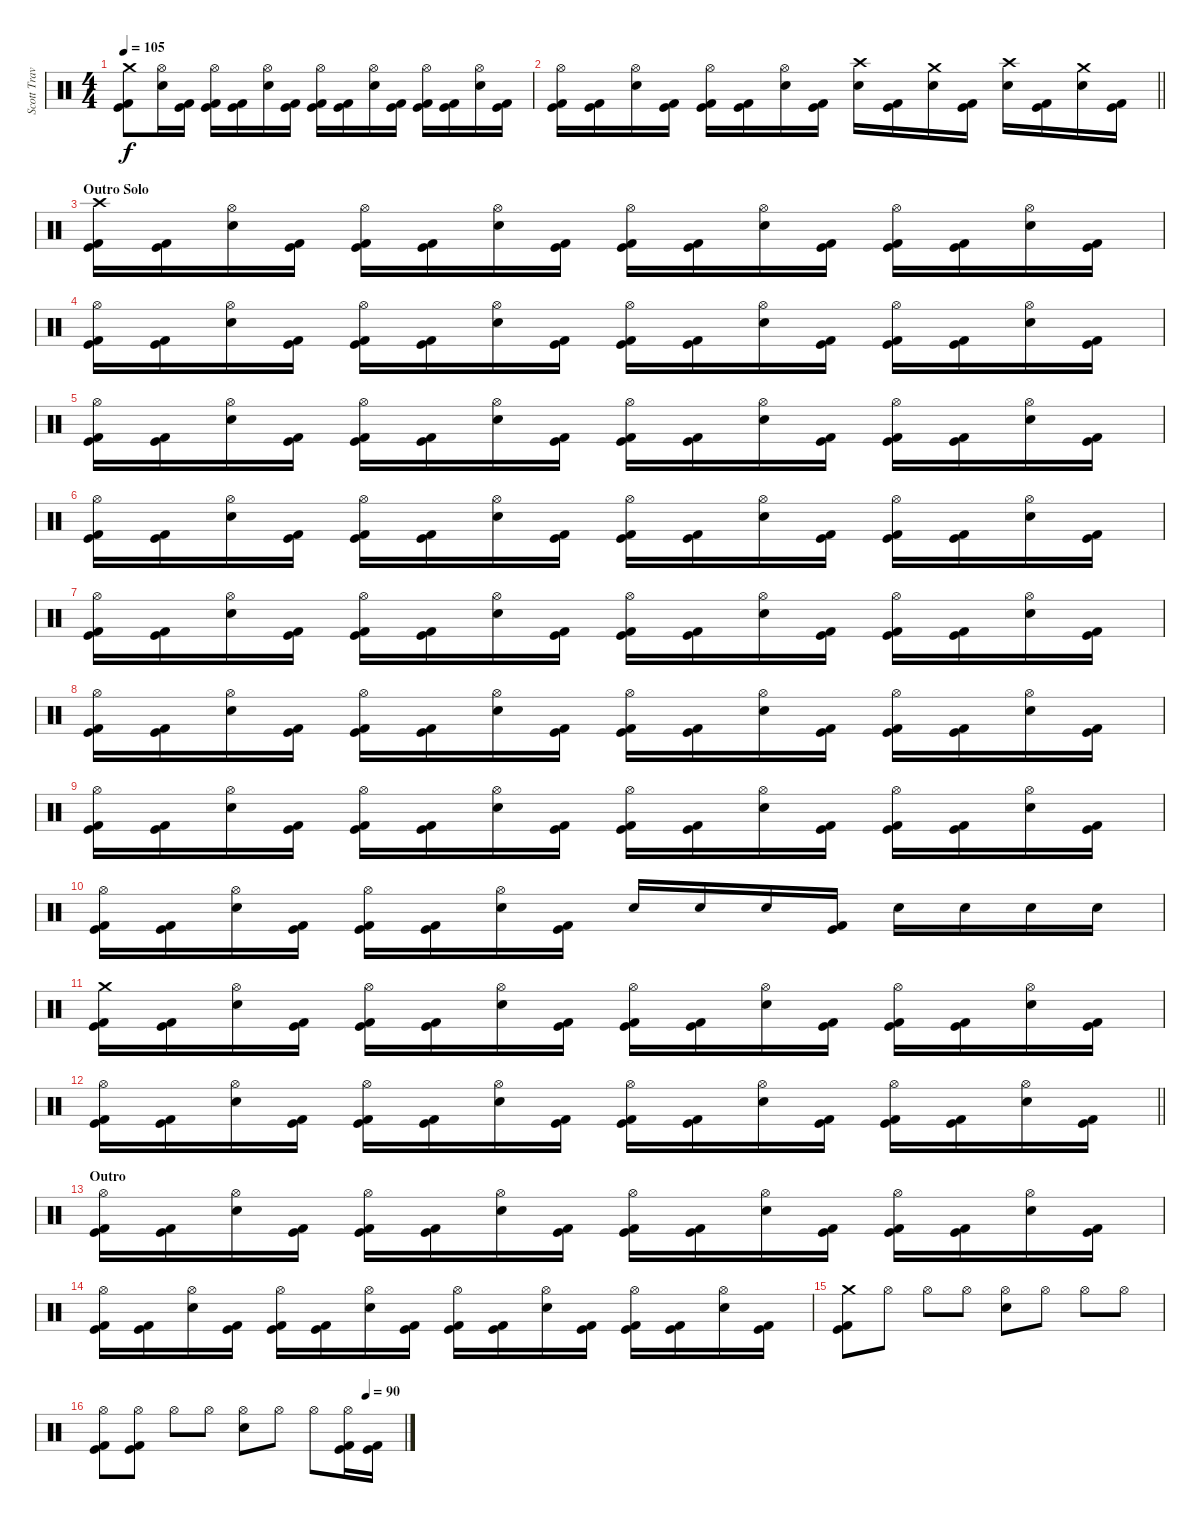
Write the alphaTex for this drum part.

\track ("Scott Travis" "Scott Trav") {instrument percussion}
\staff {score}
\articulation defaults
\ts (4 4)
\tempo 105
\clef neutral
\ks c
("Crash medium (hit)" "Kick (hit)" "Kick (hit) 2").8{dy f} ("Hi-Hat (open)" "Snare (hit) 2").16 ("Kick (hit) 2" "Kick (hit)").16 ("Hi-Hat (open)" "Kick (hit) 2" "Kick (hit)").16 ("Kick (hit) 2" "Kick (hit)").16 ("Hi-Hat (open)" "Snare (hit) 2").16 ("Kick (hit) 2" "Kick (hit)").16 ("Hi-Hat (open)" "Kick (hit) 2" "Kick (hit)").16 ("Kick (hit) 2" "Kick (hit)").16 ("Hi-Hat (open)" "Snare (hit) 2").16 ("Kick (hit) 2" "Kick (hit)").16 ("Hi-Hat (open)" "Kick (hit) 2" "Kick (hit)").16 ("Kick (hit) 2" "Kick (hit)").16 ("Hi-Hat (open)" "Snare (hit) 2").16 ("Kick (hit) 2" "Kick (hit)").16 |
\barLineRight lightlight
("Hi-Hat (open)" "Kick (hit) 2" "Kick (hit)").16 ("Kick (hit) 2" "Kick (hit)").16 ("Hi-Hat (open)" "Snare (hit) 2").16 ("Kick (hit) 2" "Kick (hit)").16 ("Hi-Hat (open)" "Kick (hit) 2" "Kick (hit)").16 ("Kick (hit) 2" "Kick (hit)").16 ("Hi-Hat (open)" "Snare (hit) 2").16 ("Kick (hit) 2" "Kick (hit)").16 ("Crash high (hit)" "Snare (hit) 2").16 ("Kick (hit) 2" "Kick (hit)").16 ("Crash medium (hit)" "Snare (hit) 2").16 ("Kick (hit) 2" "Kick (hit)").16 ("Crash high (hit)" "Snare (hit) 2").16 ("Kick (hit) 2" "Kick (hit)").16 ("Crash medium (hit)" "Snare (hit) 2").16 ("Kick (hit) 2" "Kick (hit)").16 |
\section ("" "Outro Solo")
("Crash high (hit)" "Kick (hit) 2" "Kick (hit)").16 ("Kick (hit) 2" "Kick (hit)").16 ("Hi-Hat (open)" "Snare (hit) 2").16 ("Kick (hit) 2" "Kick (hit)").16 ("Hi-Hat (open)" "Kick (hit) 2" "Kick (hit)").16 ("Kick (hit) 2" "Kick (hit)").16 ("Hi-Hat (open)" "Snare (hit) 2").16 ("Kick (hit) 2" "Kick (hit)").16 ("Hi-Hat (open)" "Kick (hit) 2" "Kick (hit)").16 ("Kick (hit) 2" "Kick (hit)").16 ("Hi-Hat (open)" "Snare (hit) 2").16 ("Kick (hit) 2" "Kick (hit)").16 ("Hi-Hat (open)" "Kick (hit) 2" "Kick (hit)").16 ("Kick (hit) 2" "Kick (hit)").16 ("Hi-Hat (open)" "Snare (hit) 2").16 ("Kick (hit) 2" "Kick (hit)").16 |
("Hi-Hat (open)" "Kick (hit) 2" "Kick (hit)").16 ("Kick (hit) 2" "Kick (hit)").16 ("Hi-Hat (open)" "Snare (hit) 2").16 ("Kick (hit) 2" "Kick (hit)").16 ("Hi-Hat (open)" "Kick (hit) 2" "Kick (hit)").16 ("Kick (hit) 2" "Kick (hit)").16 ("Hi-Hat (open)" "Snare (hit) 2").16 ("Kick (hit) 2" "Kick (hit)").16 ("Hi-Hat (open)" "Kick (hit) 2" "Kick (hit)").16 ("Kick (hit) 2" "Kick (hit)").16 ("Hi-Hat (open)" "Snare (hit) 2").16 ("Kick (hit) 2" "Kick (hit)").16 ("Hi-Hat (open)" "Kick (hit) 2" "Kick (hit)").16 ("Kick (hit) 2" "Kick (hit)").16 ("Hi-Hat (open)" "Snare (hit) 2").16 ("Kick (hit) 2" "Kick (hit)").16 |
("Hi-Hat (open)" "Kick (hit) 2" "Kick (hit)").16 ("Kick (hit) 2" "Kick (hit)").16 ("Hi-Hat (open)" "Snare (hit) 2").16 ("Kick (hit) 2" "Kick (hit)").16 ("Hi-Hat (open)" "Kick (hit) 2" "Kick (hit)").16 ("Kick (hit) 2" "Kick (hit)").16 ("Hi-Hat (open)" "Snare (hit) 2").16 ("Kick (hit) 2" "Kick (hit)").16 ("Hi-Hat (open)" "Kick (hit) 2" "Kick (hit)").16 ("Kick (hit) 2" "Kick (hit)").16 ("Hi-Hat (open)" "Snare (hit) 2").16 ("Kick (hit) 2" "Kick (hit)").16 ("Hi-Hat (open)" "Kick (hit) 2" "Kick (hit)").16 ("Kick (hit) 2" "Kick (hit)").16 ("Hi-Hat (open)" "Snare (hit) 2").16 ("Kick (hit) 2" "Kick (hit)").16 |
("Hi-Hat (open)" "Kick (hit) 2" "Kick (hit)").16 ("Kick (hit) 2" "Kick (hit)").16 ("Hi-Hat (open)" "Snare (hit) 2").16 ("Kick (hit) 2" "Kick (hit)").16 ("Hi-Hat (open)" "Kick (hit) 2" "Kick (hit)").16 ("Kick (hit) 2" "Kick (hit)").16 ("Hi-Hat (open)" "Snare (hit) 2").16 ("Kick (hit) 2" "Kick (hit)").16 ("Hi-Hat (open)" "Kick (hit) 2" "Kick (hit)").16 ("Kick (hit) 2" "Kick (hit)").16 ("Hi-Hat (open)" "Snare (hit) 2").16 ("Kick (hit) 2" "Kick (hit)").16 ("Hi-Hat (open)" "Kick (hit) 2" "Kick (hit)").16 ("Kick (hit) 2" "Kick (hit)").16 ("Hi-Hat (open)" "Snare (hit) 2").16 ("Kick (hit) 2" "Kick (hit)").16 |
("Hi-Hat (open)" "Kick (hit) 2" "Kick (hit)").16 ("Kick (hit) 2" "Kick (hit)").16 ("Hi-Hat (open)" "Snare (hit) 2").16 ("Kick (hit) 2" "Kick (hit)").16 ("Hi-Hat (open)" "Kick (hit) 2" "Kick (hit)").16 ("Kick (hit) 2" "Kick (hit)").16 ("Hi-Hat (open)" "Snare (hit) 2").16 ("Kick (hit) 2" "Kick (hit)").16 ("Hi-Hat (open)" "Kick (hit) 2" "Kick (hit)").16 ("Kick (hit) 2" "Kick (hit)").16 ("Hi-Hat (open)" "Snare (hit) 2").16 ("Kick (hit) 2" "Kick (hit)").16 ("Hi-Hat (open)" "Kick (hit) 2" "Kick (hit)").16 ("Kick (hit) 2" "Kick (hit)").16 ("Hi-Hat (open)" "Snare (hit) 2").16 ("Kick (hit) 2" "Kick (hit)").16 |
("Hi-Hat (open)" "Kick (hit) 2" "Kick (hit)").16 ("Kick (hit) 2" "Kick (hit)").16 ("Hi-Hat (open)" "Snare (hit) 2").16 ("Kick (hit) 2" "Kick (hit)").16 ("Hi-Hat (open)" "Kick (hit) 2" "Kick (hit)").16 ("Kick (hit) 2" "Kick (hit)").16 ("Hi-Hat (open)" "Snare (hit) 2").16 ("Kick (hit) 2" "Kick (hit)").16 ("Hi-Hat (open)" "Kick (hit) 2" "Kick (hit)").16 ("Kick (hit) 2" "Kick (hit)").16 ("Hi-Hat (open)" "Snare (hit) 2").16 ("Kick (hit) 2" "Kick (hit)").16 ("Hi-Hat (open)" "Kick (hit) 2" "Kick (hit)").16 ("Kick (hit) 2" "Kick (hit)").16 ("Hi-Hat (open)" "Snare (hit) 2").16 ("Kick (hit) 2" "Kick (hit)").16 |
("Hi-Hat (open)" "Kick (hit) 2" "Kick (hit)").16 ("Kick (hit) 2" "Kick (hit)").16 ("Hi-Hat (open)" "Snare (hit) 2").16 ("Kick (hit) 2" "Kick (hit)").16 ("Hi-Hat (open)" "Kick (hit) 2" "Kick (hit)").16 ("Kick (hit) 2" "Kick (hit)").16 ("Hi-Hat (open)" "Snare (hit) 2").16 ("Kick (hit) 2" "Kick (hit)").16 ("Hi-Hat (open)" "Kick (hit) 2" "Kick (hit)").16 ("Kick (hit) 2" "Kick (hit)").16 ("Hi-Hat (open)" "Snare (hit) 2").16 ("Kick (hit) 2" "Kick (hit)").16 ("Hi-Hat (open)" "Kick (hit) 2" "Kick (hit)").16 ("Kick (hit) 2" "Kick (hit)").16 ("Hi-Hat (open)" "Snare (hit) 2").16 ("Kick (hit) 2" "Kick (hit)").16 |
("Hi-Hat (open)" "Kick (hit) 2" "Kick (hit)").16 ("Kick (hit) 2" "Kick (hit)").16 ("Hi-Hat (open)" "Snare (hit) 2").16 ("Kick (hit) 2" "Kick (hit)").16 ("Hi-Hat (open)" "Kick (hit) 2" "Kick (hit)").16 ("Kick (hit) 2" "Kick (hit)").16 ("Hi-Hat (open)" "Snare (hit) 2").16 ("Kick (hit) 2" "Kick (hit)").16 "Snare (hit) 2".16 "Snare (hit) 2".16 "Snare (hit) 2".16 ("Kick (hit) 2" "Kick (hit)").16 "Snare (hit) 2".16 "Snare (hit) 2".16 "Snare (hit) 2".16 "Snare (hit) 2".16 |
("Crash medium (hit)" "Kick (hit) 2" "Kick (hit)").16 ("Kick (hit)" "Kick (hit) 2").16 ("Hi-Hat (open)" "Snare (hit) 2").16 ("Kick (hit) 2" "Kick (hit)").16 ("Hi-Hat (open)" "Kick (hit) 2" "Kick (hit)").16 ("Kick (hit) 2" "Kick (hit)").16 ("Hi-Hat (open)" "Snare (hit) 2").16 ("Kick (hit) 2" "Kick (hit)").16 ("Hi-Hat (open)" "Kick (hit) 2" "Kick (hit)").16 ("Kick (hit) 2" "Kick (hit)").16 ("Hi-Hat (open)" "Snare (hit) 2").16 ("Kick (hit) 2" "Kick (hit)").16 ("Hi-Hat (open)" "Kick (hit) 2" "Kick (hit)").16 ("Kick (hit) 2" "Kick (hit)").16 ("Hi-Hat (open)" "Snare (hit) 2").16 ("Kick (hit) 2" "Kick (hit)").16 |
\barLineRight lightlight
("Hi-Hat (open)" "Kick (hit) 2" "Kick (hit)").16 ("Kick (hit) 2" "Kick (hit)").16 ("Hi-Hat (open)" "Snare (hit) 2").16 ("Kick (hit) 2" "Kick (hit)").16 ("Hi-Hat (open)" "Kick (hit) 2" "Kick (hit)").16 ("Kick (hit) 2" "Kick (hit)").16 ("Hi-Hat (open)" "Snare (hit) 2").16 ("Kick (hit) 2" "Kick (hit)").16 ("Hi-Hat (open)" "Kick (hit) 2" "Kick (hit)").16 ("Kick (hit) 2" "Kick (hit)").16 ("Hi-Hat (open)" "Snare (hit) 2").16 ("Kick (hit) 2" "Kick (hit)").16 ("Hi-Hat (open)" "Kick (hit) 2" "Kick (hit)").16 ("Kick (hit) 2" "Kick (hit)").16 ("Hi-Hat (open)" "Snare (hit) 2").16 ("Kick (hit) 2" "Kick (hit)").16 |
\section ("" "Outro")
("Hi-Hat (open)" "Kick (hit) 2" "Kick (hit)").16 ("Kick (hit)" "Kick (hit) 2").16 ("Hi-Hat (open)" "Snare (hit) 2").16 ("Kick (hit) 2" "Kick (hit)").16 ("Hi-Hat (open)" "Kick (hit) 2" "Kick (hit)").16 ("Kick (hit) 2" "Kick (hit)").16 ("Hi-Hat (open)" "Snare (hit) 2").16 ("Kick (hit) 2" "Kick (hit)").16 ("Hi-Hat (open)" "Kick (hit) 2" "Kick (hit)").16 ("Kick (hit) 2" "Kick (hit)").16 ("Hi-Hat (open)" "Snare (hit) 2").16 ("Kick (hit) 2" "Kick (hit)").16 ("Hi-Hat (open)" "Kick (hit) 2" "Kick (hit)").16 ("Kick (hit) 2" "Kick (hit)").16 ("Hi-Hat (open)" "Snare (hit) 2").16 ("Kick (hit) 2" "Kick (hit)").16 |
("Hi-Hat (open)" "Kick (hit) 2" "Kick (hit)").16 ("Kick (hit) 2" "Kick (hit)").16 ("Hi-Hat (open)" "Snare (hit) 2").16 ("Kick (hit) 2" "Kick (hit)").16 ("Hi-Hat (open)" "Kick (hit) 2" "Kick (hit)").16 ("Kick (hit) 2" "Kick (hit)").16 ("Hi-Hat (open)" "Snare (hit) 2").16 ("Kick (hit) 2" "Kick (hit)").16 ("Hi-Hat (open)" "Kick (hit) 2" "Kick (hit)").16 ("Kick (hit) 2" "Kick (hit)").16 ("Hi-Hat (open)" "Snare (hit) 2").16 ("Kick (hit) 2" "Kick (hit)").16 ("Hi-Hat (open)" "Kick (hit) 2" "Kick (hit)").16 ("Kick (hit) 2" "Kick (hit)").16 ("Hi-Hat (open)" "Snare (hit) 2").16 ("Kick (hit) 2" "Kick (hit)").16 |
("Crash medium (hit)" "Kick (hit)" "Kick (hit) 2").8 "Hi-Hat (open)".8 "Hi-Hat (open)".8 "Hi-Hat (open)".8 ("Hi-Hat (open)" "Snare (hit) 2").8 "Hi-Hat (open)".8 "Hi-Hat (open)".8 "Hi-Hat (open)".8 |
\tempo (90 0.875)
("Hi-Hat (open)" "Kick (hit)" "Kick (hit) 2").8 ("Hi-Hat (open)" "Kick (hit)" "Kick (hit) 2").8 "Hi-Hat (open)".8 "Hi-Hat (open)".8 ("Hi-Hat (open)" "Snare (hit) 2").8 "Hi-Hat (open)".8 "Hi-Hat (open)".8 ("Hi-Hat (open)" "Kick (hit) 2" "Kick (hit)").16 ("Kick (hit)" "Kick (hit) 2").16
